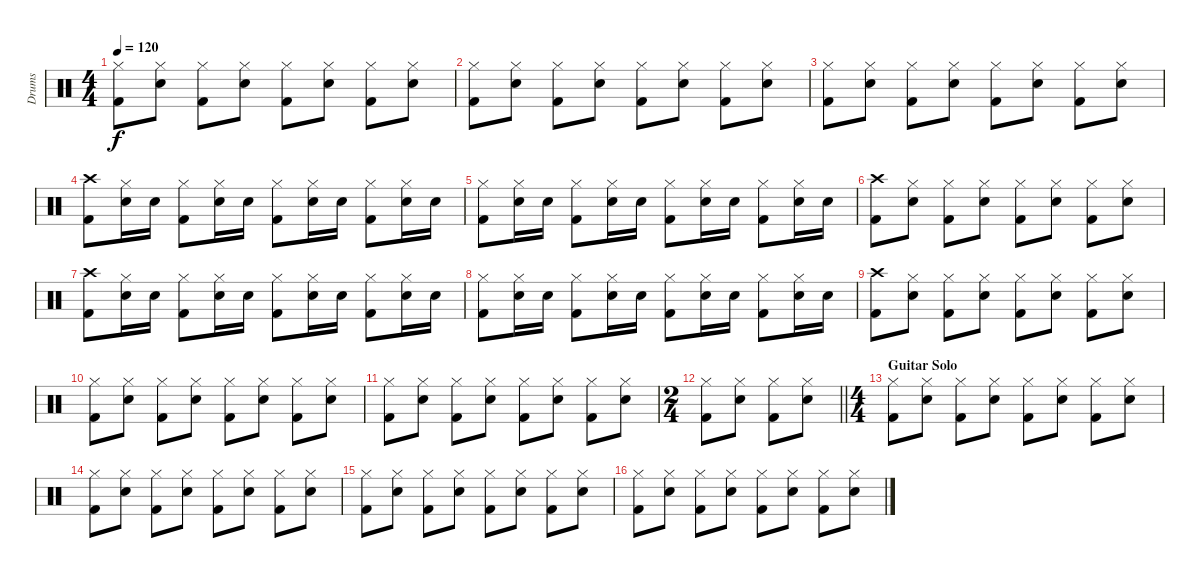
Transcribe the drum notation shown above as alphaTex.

\track ("Drums" "Drums") {instrument percussion}
\staff {score}
\articulation defaults
\ts (4 4)
\tempo 120
\clef neutral
\ks c
("Hi-Hat (closed)" "Kick (hit) 2").8{dy f} ("Hi-Hat (closed)" "Electric Snare (hit)").8 ("Hi-Hat (closed)" "Kick (hit) 2").8 ("Hi-Hat (closed)" "Electric Snare (hit)").8 ("Hi-Hat (closed)" "Kick (hit) 2").8 ("Hi-Hat (closed)" "Electric Snare (hit)").8 ("Hi-Hat (closed)" "Kick (hit) 2").8 ("Hi-Hat (closed)" "Electric Snare (hit)").8 |
("Hi-Hat (closed)" "Kick (hit) 2").8 ("Hi-Hat (closed)" "Electric Snare (hit)").8 ("Hi-Hat (closed)" "Kick (hit) 2").8 ("Hi-Hat (closed)" "Electric Snare (hit)").8 ("Hi-Hat (closed)" "Kick (hit) 2").8 ("Hi-Hat (closed)" "Electric Snare (hit)").8 ("Hi-Hat (closed)" "Kick (hit) 2").8 ("Hi-Hat (closed)" "Electric Snare (hit)").8 |
("Hi-Hat (closed)" "Kick (hit) 2").8 ("Hi-Hat (closed)" "Electric Snare (hit)").8 ("Hi-Hat (closed)" "Kick (hit) 2").8 ("Hi-Hat (closed)" "Electric Snare (hit)").8 ("Hi-Hat (closed)" "Kick (hit) 2").8 ("Hi-Hat (closed)" "Electric Snare (hit)").8 ("Hi-Hat (closed)" "Kick (hit) 2").8 ("Hi-Hat (closed)" "Electric Snare (hit)").8 |
("Crash high (hit)" "Kick (hit) 2").8 ("Hi-Hat (closed)" "Electric Snare (hit)").16 "Electric Snare (hit)".16 ("Hi-Hat (closed)" "Kick (hit) 2").8 ("Hi-Hat (closed)" "Electric Snare (hit)").16 "Electric Snare (hit)".16 ("Hi-Hat (closed)" "Kick (hit) 2").8 ("Hi-Hat (closed)" "Electric Snare (hit)").16 "Electric Snare (hit)".16 ("Hi-Hat (closed)" "Kick (hit) 2").8 ("Hi-Hat (closed)" "Electric Snare (hit)").16 "Electric Snare (hit)".16 |
("Hi-Hat (closed)" "Kick (hit) 2").8 ("Hi-Hat (closed)" "Electric Snare (hit)").16 "Electric Snare (hit)".16 ("Hi-Hat (closed)" "Kick (hit) 2").8 ("Hi-Hat (closed)" "Electric Snare (hit)").16 "Electric Snare (hit)".16 ("Hi-Hat (closed)" "Kick (hit) 2").8 ("Hi-Hat (closed)" "Electric Snare (hit)").16 "Electric Snare (hit)".16 ("Hi-Hat (closed)" "Kick (hit) 2").8 ("Hi-Hat (closed)" "Electric Snare (hit)").16 "Electric Snare (hit)".16 |
("Crash high (hit)" "Kick (hit) 2").8 ("Hi-Hat (closed)" "Electric Snare (hit)").8 ("Hi-Hat (closed)" "Kick (hit) 2").8 ("Hi-Hat (closed)" "Electric Snare (hit)").8 ("Hi-Hat (closed)" "Kick (hit) 2").8 ("Hi-Hat (closed)" "Electric Snare (hit)").8 ("Hi-Hat (closed)" "Kick (hit) 2").8 ("Hi-Hat (closed)" "Electric Snare (hit)").8 |
("Crash high (hit)" "Kick (hit) 2").8 ("Hi-Hat (closed)" "Electric Snare (hit)").16 "Electric Snare (hit)".16 ("Hi-Hat (closed)" "Kick (hit) 2").8 ("Hi-Hat (closed)" "Electric Snare (hit)").16 "Electric Snare (hit)".16 ("Hi-Hat (closed)" "Kick (hit) 2").8 ("Hi-Hat (closed)" "Electric Snare (hit)").16 "Electric Snare (hit)".16 ("Hi-Hat (closed)" "Kick (hit) 2").8 ("Hi-Hat (closed)" "Electric Snare (hit)").16 "Electric Snare (hit)".16 |
("Hi-Hat (closed)" "Kick (hit) 2").8 ("Hi-Hat (closed)" "Electric Snare (hit)").16 "Electric Snare (hit)".16 ("Hi-Hat (closed)" "Kick (hit) 2").8 ("Hi-Hat (closed)" "Electric Snare (hit)").16 "Electric Snare (hit)".16 ("Hi-Hat (closed)" "Kick (hit) 2").8 ("Hi-Hat (closed)" "Electric Snare (hit)").16 "Electric Snare (hit)".16 ("Hi-Hat (closed)" "Kick (hit) 2").8 ("Hi-Hat (closed)" "Electric Snare (hit)").16 "Electric Snare (hit)".16 |
("Crash high (hit)" "Kick (hit) 2").8 ("Hi-Hat (closed)" "Electric Snare (hit)").8 ("Hi-Hat (closed)" "Kick (hit) 2").8 ("Hi-Hat (closed)" "Electric Snare (hit)").8 ("Hi-Hat (closed)" "Kick (hit) 2").8 ("Hi-Hat (closed)" "Electric Snare (hit)").8 ("Hi-Hat (closed)" "Kick (hit) 2").8 ("Hi-Hat (closed)" "Electric Snare (hit)").8 |
("Hi-Hat (closed)" "Kick (hit) 2").8 ("Hi-Hat (closed)" "Electric Snare (hit)").8 ("Hi-Hat (closed)" "Kick (hit) 2").8 ("Hi-Hat (closed)" "Electric Snare (hit)").8 ("Hi-Hat (closed)" "Kick (hit) 2").8 ("Hi-Hat (closed)" "Electric Snare (hit)").8 ("Hi-Hat (closed)" "Kick (hit) 2").8 ("Hi-Hat (closed)" "Electric Snare (hit)").8 |
("Hi-Hat (closed)" "Kick (hit) 2").8 ("Hi-Hat (closed)" "Electric Snare (hit)").8 ("Hi-Hat (closed)" "Kick (hit) 2").8 ("Hi-Hat (closed)" "Electric Snare (hit)").8 ("Hi-Hat (closed)" "Kick (hit) 2").8 ("Hi-Hat (closed)" "Electric Snare (hit)").8 ("Hi-Hat (closed)" "Kick (hit) 2").8 ("Hi-Hat (closed)" "Electric Snare (hit)").8 |
\ts (2 4)
\barLineRight lightlight
("Hi-Hat (closed)" "Kick (hit) 2").8 ("Hi-Hat (closed)" "Electric Snare (hit)").8 ("Hi-Hat (closed)" "Kick (hit) 2").8 ("Hi-Hat (closed)" "Electric Snare (hit)").8 |
\ts (4 4)
\section ("" "Guitar Solo")
("Hi-Hat (closed)" "Kick (hit) 2").8 ("Hi-Hat (closed)" "Electric Snare (hit)").8 ("Hi-Hat (closed)" "Kick (hit) 2").8 ("Hi-Hat (closed)" "Electric Snare (hit)").8 ("Hi-Hat (closed)" "Kick (hit) 2").8 ("Hi-Hat (closed)" "Electric Snare (hit)").8 ("Hi-Hat (closed)" "Kick (hit) 2").8 ("Hi-Hat (closed)" "Electric Snare (hit)").8 |
("Hi-Hat (closed)" "Kick (hit) 2").8 ("Hi-Hat (closed)" "Electric Snare (hit)").8 ("Hi-Hat (closed)" "Kick (hit) 2").8 ("Hi-Hat (closed)" "Electric Snare (hit)").8 ("Hi-Hat (closed)" "Kick (hit) 2").8 ("Hi-Hat (closed)" "Electric Snare (hit)").8 ("Hi-Hat (closed)" "Kick (hit) 2").8 ("Hi-Hat (closed)" "Electric Snare (hit)").8 |
("Hi-Hat (closed)" "Kick (hit) 2").8 ("Hi-Hat (closed)" "Electric Snare (hit)").8 ("Hi-Hat (closed)" "Kick (hit) 2").8 ("Hi-Hat (closed)" "Electric Snare (hit)").8 ("Hi-Hat (closed)" "Kick (hit) 2").8 ("Hi-Hat (closed)" "Electric Snare (hit)").8 ("Hi-Hat (closed)" "Kick (hit) 2").8 ("Hi-Hat (closed)" "Electric Snare (hit)").8 |
("Hi-Hat (closed)" "Kick (hit) 2").8 ("Hi-Hat (closed)" "Electric Snare (hit)").8 ("Hi-Hat (closed)" "Kick (hit) 2").8 ("Hi-Hat (closed)" "Electric Snare (hit)").8 ("Hi-Hat (closed)" "Kick (hit) 2").8 ("Hi-Hat (closed)" "Electric Snare (hit)").8 ("Hi-Hat (closed)" "Kick (hit) 2").8 ("Hi-Hat (closed)" "Electric Snare (hit)").8
